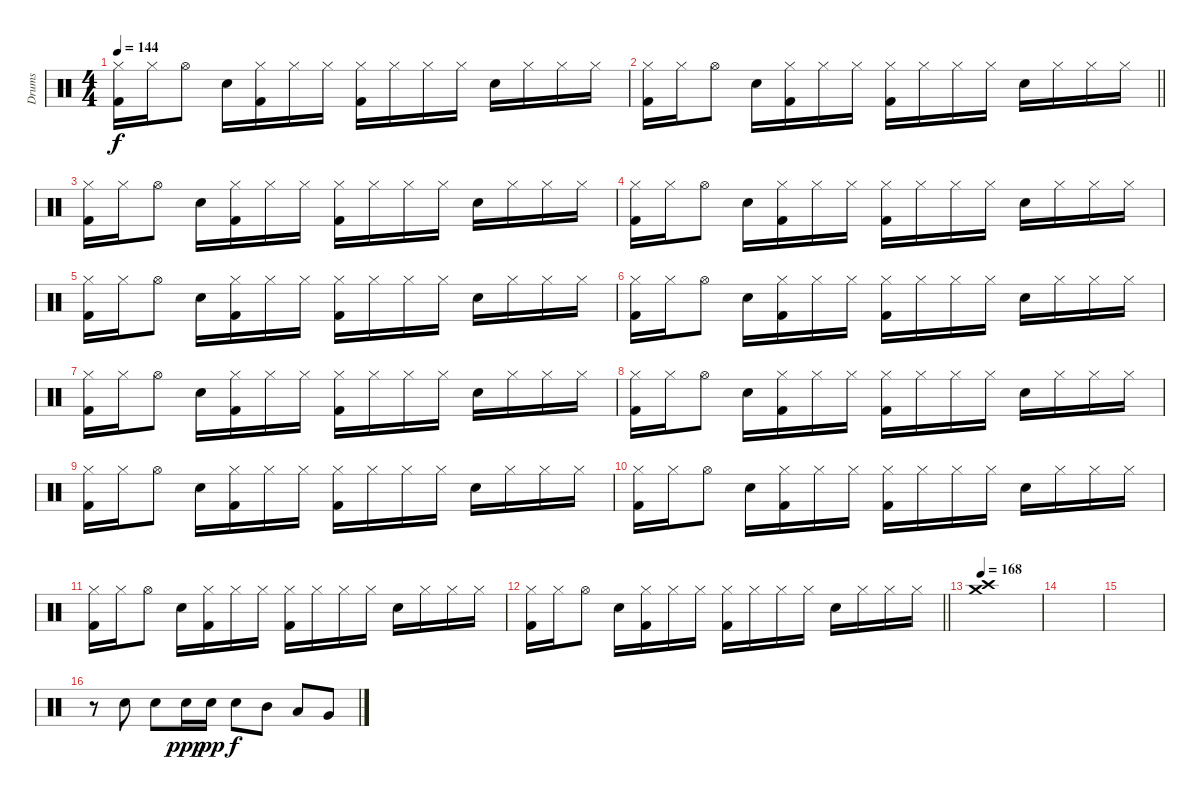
\track ("Drums" "Drums") {instrument percussion}
\staff {score}
\articulation defaults
\ts (4 4)
\tempo 144
\clef neutral
\ks c
("Hi-Hat (closed)" "Kick (hit) 2").16{dy f} "Hi-Hat (closed)".16 "Hi-Hat (open)".8 "Electric Snare (hit)".16 ("Hi-Hat (closed)" "Kick (hit) 2").16 "Hi-Hat (closed)".16 "Hi-Hat (closed)".16 ("Hi-Hat (closed)" "Kick (hit) 2").16 "Hi-Hat (closed)".16 "Hi-Hat (closed)".16 "Hi-Hat (closed)".16 "Electric Snare (hit)".16 "Hi-Hat (closed)".16 "Hi-Hat (closed)".16 "Hi-Hat (closed)".16 |
\barLineRight lightlight
("Hi-Hat (closed)" "Kick (hit) 2").16 "Hi-Hat (closed)".16 "Hi-Hat (open)".8 "Electric Snare (hit)".16 ("Hi-Hat (closed)" "Kick (hit) 2").16 "Hi-Hat (closed)".16 "Hi-Hat (closed)".16 ("Hi-Hat (closed)" "Kick (hit) 2").16 "Hi-Hat (closed)".16 "Hi-Hat (closed)".16 "Hi-Hat (closed)".16 "Electric Snare (hit)".16 "Hi-Hat (closed)".16 "Hi-Hat (closed)".16 "Hi-Hat (closed)".16 |
("Hi-Hat (closed)" "Kick (hit) 2").16 "Hi-Hat (closed)".16 "Hi-Hat (open)".8 "Electric Snare (hit)".16 ("Hi-Hat (closed)" "Kick (hit) 2").16 "Hi-Hat (closed)".16 "Hi-Hat (closed)".16 ("Hi-Hat (closed)" "Kick (hit) 2").16 "Hi-Hat (closed)".16 "Hi-Hat (closed)".16 "Hi-Hat (closed)".16 "Electric Snare (hit)".16 "Hi-Hat (closed)".16 "Hi-Hat (closed)".16 "Hi-Hat (closed)".16 |
("Hi-Hat (closed)" "Kick (hit) 2").16 "Hi-Hat (closed)".16 "Hi-Hat (open)".8 "Electric Snare (hit)".16 ("Hi-Hat (closed)" "Kick (hit) 2").16 "Hi-Hat (closed)".16 "Hi-Hat (closed)".16 ("Hi-Hat (closed)" "Kick (hit) 2").16 "Hi-Hat (closed)".16 "Hi-Hat (closed)".16 "Hi-Hat (closed)".16 "Electric Snare (hit)".16 "Hi-Hat (closed)".16 "Hi-Hat (closed)".16 "Hi-Hat (closed)".16 |
("Hi-Hat (closed)" "Kick (hit) 2").16 "Hi-Hat (closed)".16 "Hi-Hat (open)".8 "Electric Snare (hit)".16 ("Hi-Hat (closed)" "Kick (hit) 2").16 "Hi-Hat (closed)".16 "Hi-Hat (closed)".16 ("Hi-Hat (closed)" "Kick (hit) 2").16 "Hi-Hat (closed)".16 "Hi-Hat (closed)".16 "Hi-Hat (closed)".16 "Electric Snare (hit)".16 "Hi-Hat (closed)".16 "Hi-Hat (closed)".16 "Hi-Hat (closed)".16 |
("Hi-Hat (closed)" "Kick (hit) 2").16 "Hi-Hat (closed)".16 "Hi-Hat (open)".8 "Electric Snare (hit)".16 ("Hi-Hat (closed)" "Kick (hit) 2").16 "Hi-Hat (closed)".16 "Hi-Hat (closed)".16 ("Hi-Hat (closed)" "Kick (hit) 2").16 "Hi-Hat (closed)".16 "Hi-Hat (closed)".16 "Hi-Hat (closed)".16 "Electric Snare (hit)".16 "Hi-Hat (closed)".16 "Hi-Hat (closed)".16 "Hi-Hat (closed)".16 |
("Hi-Hat (closed)" "Kick (hit) 2").16 "Hi-Hat (closed)".16 "Hi-Hat (open)".8 "Electric Snare (hit)".16 ("Hi-Hat (closed)" "Kick (hit) 2").16 "Hi-Hat (closed)".16 "Hi-Hat (closed)".16 ("Hi-Hat (closed)" "Kick (hit) 2").16 "Hi-Hat (closed)".16 "Hi-Hat (closed)".16 "Hi-Hat (closed)".16 "Electric Snare (hit)".16 "Hi-Hat (closed)".16 "Hi-Hat (closed)".16 "Hi-Hat (closed)".16 |
("Hi-Hat (closed)" "Kick (hit) 2").16 "Hi-Hat (closed)".16 "Hi-Hat (open)".8 "Electric Snare (hit)".16 ("Hi-Hat (closed)" "Kick (hit) 2").16 "Hi-Hat (closed)".16 "Hi-Hat (closed)".16 ("Hi-Hat (closed)" "Kick (hit) 2").16 "Hi-Hat (closed)".16 "Hi-Hat (closed)".16 "Hi-Hat (closed)".16 "Electric Snare (hit)".16 "Hi-Hat (closed)".16 "Hi-Hat (closed)".16 "Hi-Hat (closed)".16 |
("Hi-Hat (closed)" "Kick (hit) 2").16 "Hi-Hat (closed)".16 "Hi-Hat (open)".8 "Electric Snare (hit)".16 ("Hi-Hat (closed)" "Kick (hit) 2").16 "Hi-Hat (closed)".16 "Hi-Hat (closed)".16 ("Hi-Hat (closed)" "Kick (hit) 2").16 "Hi-Hat (closed)".16 "Hi-Hat (closed)".16 "Hi-Hat (closed)".16 "Electric Snare (hit)".16 "Hi-Hat (closed)".16 "Hi-Hat (closed)".16 "Hi-Hat (closed)".16 |
("Hi-Hat (closed)" "Kick (hit) 2").16 "Hi-Hat (closed)".16 "Hi-Hat (open)".8 "Electric Snare (hit)".16 ("Hi-Hat (closed)" "Kick (hit) 2").16 "Hi-Hat (closed)".16 "Hi-Hat (closed)".16 ("Hi-Hat (closed)" "Kick (hit) 2").16 "Hi-Hat (closed)".16 "Hi-Hat (closed)".16 "Hi-Hat (closed)".16 "Electric Snare (hit)".16 "Hi-Hat (closed)".16 "Hi-Hat (closed)".16 "Hi-Hat (closed)".16 |
("Hi-Hat (closed)" "Kick (hit) 2").16 "Hi-Hat (closed)".16 "Hi-Hat (open)".8 "Electric Snare (hit)".16 ("Hi-Hat (closed)" "Kick (hit) 2").16 "Hi-Hat (closed)".16 "Hi-Hat (closed)".16 ("Hi-Hat (closed)" "Kick (hit) 2").16 "Hi-Hat (closed)".16 "Hi-Hat (closed)".16 "Hi-Hat (closed)".16 "Electric Snare (hit)".16 "Hi-Hat (closed)".16 "Hi-Hat (closed)".16 "Hi-Hat (closed)".16 |
\barLineRight lightlight
("Hi-Hat (closed)" "Kick (hit) 2").16 "Hi-Hat (closed)".16 "Hi-Hat (open)".8 "Electric Snare (hit)".16 ("Hi-Hat (closed)" "Kick (hit) 2").16 "Hi-Hat (closed)".16 "Hi-Hat (closed)".16 ("Hi-Hat (closed)" "Kick (hit) 2").16 "Hi-Hat (closed)".16 "Hi-Hat (closed)".16 "Hi-Hat (closed)".16 "Electric Snare (hit)".16 "Hi-Hat (closed)".16 "Hi-Hat (closed)".16 "Hi-Hat (closed)".16 |
\tempo 168
("Crash medium (hit)" "Crash high (hit)").1 |
|
|
r.8 "Electric Snare (hit)".8 "Electric Snare (hit)".8 "Electric Snare (hit)".16{dy ppp} "Electric Snare (hit)".16{dy pp} "Electric Snare (hit)".8{dy f} "Mid Tom (hit)".8 "Low Tom (hit)".8 "Very Low Tom (hit)".8
